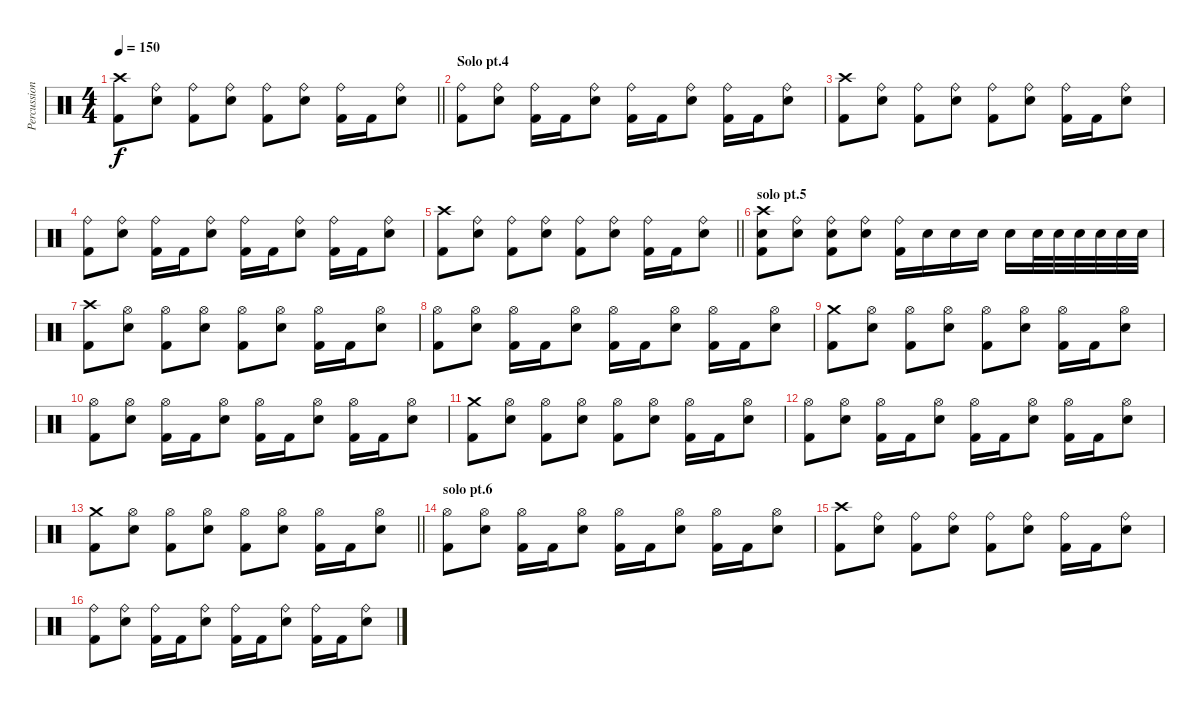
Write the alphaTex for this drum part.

\track ("Percussion" "Percussion") {instrument percussion}
\staff {score}
\articulation defaults
\ts (4 4)
\tempo 150
\clef neutral
\barLineRight lightlight
\ks c
("Crash high (hit)" "Kick (hit) 2").8{dy f} ("Ride (bell)" "Electric Snare (hit)").8 ("Ride (bell)" "Kick (hit) 2").8 ("Ride (bell)" "Electric Snare (hit)").8 ("Ride (bell)" "Kick (hit) 2").8 ("Ride (bell)" "Electric Snare (hit)").8 ("Ride (bell)" "Kick (hit) 2").16 "Kick (hit) 2".16 ("Ride (bell)" "Electric Snare (hit)").8 |
\section ("" "Solo pt.4")
("Ride (bell)" "Kick (hit) 2").8 ("Ride (bell)" "Electric Snare (hit)").8 ("Ride (bell)" "Kick (hit) 2").16 "Kick (hit) 2".16 ("Ride (bell)" "Electric Snare (hit)").8 ("Ride (bell)" "Kick (hit) 2").16 "Kick (hit) 2".16 ("Ride (bell)" "Electric Snare (hit)").8 ("Ride (bell)" "Kick (hit) 2").16 "Kick (hit) 2".16 ("Ride (bell)" "Electric Snare (hit)").8 |
("Crash high (hit)" "Kick (hit) 2").8 ("Ride (bell)" "Electric Snare (hit)").8 ("Ride (bell)" "Kick (hit) 2").8 ("Ride (bell)" "Electric Snare (hit)").8 ("Ride (bell)" "Kick (hit) 2").8 ("Ride (bell)" "Electric Snare (hit)").8 ("Ride (bell)" "Kick (hit) 2").16 "Kick (hit) 2".16 ("Ride (bell)" "Electric Snare (hit)").8 |
("Ride (bell)" "Kick (hit) 2").8 ("Ride (bell)" "Electric Snare (hit)").8 ("Ride (bell)" "Kick (hit) 2").16 "Kick (hit) 2".16 ("Ride (bell)" "Electric Snare (hit)").8 ("Ride (bell)" "Kick (hit) 2").16 "Kick (hit) 2".16 ("Ride (bell)" "Electric Snare (hit)").8 ("Ride (bell)" "Kick (hit) 2").16 "Kick (hit) 2".16 ("Ride (bell)" "Electric Snare (hit)").8 |
\barLineRight lightlight
("Crash high (hit)" "Kick (hit) 2").8 ("Ride (bell)" "Electric Snare (hit)").8 ("Ride (bell)" "Kick (hit) 2").8 ("Ride (bell)" "Electric Snare (hit)").8 ("Ride (bell)" "Kick (hit) 2").8 ("Ride (bell)" "Electric Snare (hit)").8 ("Ride (bell)" "Kick (hit) 2").16 "Kick (hit) 2".16 ("Ride (bell)" "Electric Snare (hit)").8 |
\section ("" "solo pt.5")
("Crash high (hit)" "Electric Snare (hit)" "Kick (hit) 2").8 ("Ride (bell)" "Electric Snare (hit)").8 ("Ride (bell)" "Electric Snare (hit)" "Kick (hit) 2").8 ("Ride (bell)" "Electric Snare (hit)").8 ("Ride (bell)" "Kick (hit) 2").16 "Electric Snare (hit)".16 "Electric Snare (hit)".16 "Electric Snare (hit)".16 "Electric Snare (hit)".16 "Electric Snare (hit)".32 "Electric Snare (hit)".32 "Electric Snare (hit)".32 "Electric Snare (hit)".32 "Electric Snare (hit)".32 "Electric Snare (hit)".32 |
("Crash high (hit)" "Kick (hit) 2").8 ("Hi-Hat (open)" "Electric Snare (hit)").8 ("Hi-Hat (open)" "Kick (hit) 2").8 ("Hi-Hat (open)" "Electric Snare (hit)").8 ("Hi-Hat (open)" "Kick (hit) 2").8 ("Hi-Hat (open)" "Electric Snare (hit)").8 ("Hi-Hat (open)" "Kick (hit) 2").16 "Kick (hit) 2".16 ("Hi-Hat (open)" "Electric Snare (hit)").8 |
("Hi-Hat (open)" "Kick (hit) 2").8 ("Hi-Hat (open)" "Electric Snare (hit)").8 ("Hi-Hat (open)" "Kick (hit) 2").16 "Kick (hit) 2".16 ("Hi-Hat (open)" "Electric Snare (hit)").8 ("Hi-Hat (open)" "Kick (hit) 2").16 "Kick (hit) 2".16 ("Hi-Hat (open)" "Electric Snare (hit)").8 ("Hi-Hat (open)" "Kick (hit) 2").16 "Kick (hit) 2".16 ("Hi-Hat (open)" "Electric Snare (hit)").8 |
("Crash medium (hit)" "Kick (hit) 2").8 ("Hi-Hat (open)" "Electric Snare (hit)").8 ("Hi-Hat (open)" "Kick (hit) 2").8 ("Hi-Hat (open)" "Electric Snare (hit)").8 ("Hi-Hat (open)" "Kick (hit) 2").8 ("Hi-Hat (open)" "Electric Snare (hit)").8 ("Hi-Hat (open)" "Kick (hit) 2").16 "Kick (hit) 2".16 ("Hi-Hat (open)" "Electric Snare (hit)").8 |
("Hi-Hat (open)" "Kick (hit) 2").8 ("Hi-Hat (open)" "Electric Snare (hit)").8 ("Hi-Hat (open)" "Kick (hit) 2").16 "Kick (hit) 2".16 ("Hi-Hat (open)" "Electric Snare (hit)").8 ("Hi-Hat (open)" "Kick (hit) 2").16 "Kick (hit) 2".16 ("Hi-Hat (open)" "Electric Snare (hit)").8 ("Hi-Hat (open)" "Kick (hit) 2").16 "Kick (hit) 2".16 ("Hi-Hat (open)" "Electric Snare (hit)").8 |
("Crash medium (hit)" "Kick (hit) 2").8 ("Hi-Hat (open)" "Electric Snare (hit)").8 ("Hi-Hat (open)" "Kick (hit) 2").8 ("Hi-Hat (open)" "Electric Snare (hit)").8 ("Hi-Hat (open)" "Kick (hit) 2").8 ("Hi-Hat (open)" "Electric Snare (hit)").8 ("Hi-Hat (open)" "Kick (hit) 2").16 "Kick (hit) 2".16 ("Hi-Hat (open)" "Electric Snare (hit)").8 |
("Hi-Hat (open)" "Kick (hit) 2").8 ("Hi-Hat (open)" "Electric Snare (hit)").8 ("Hi-Hat (open)" "Kick (hit) 2").16 "Kick (hit) 2".16 ("Hi-Hat (open)" "Electric Snare (hit)").8 ("Hi-Hat (open)" "Kick (hit) 2").16 "Kick (hit) 2".16 ("Hi-Hat (open)" "Electric Snare (hit)").8 ("Hi-Hat (open)" "Kick (hit) 2").16 "Kick (hit) 2".16 ("Hi-Hat (open)" "Electric Snare (hit)").8 |
\barLineRight lightlight
("Crash medium (hit)" "Kick (hit) 2").8 ("Hi-Hat (open)" "Electric Snare (hit)").8 ("Hi-Hat (open)" "Kick (hit) 2").8 ("Hi-Hat (open)" "Electric Snare (hit)").8 ("Hi-Hat (open)" "Kick (hit) 2").8 ("Hi-Hat (open)" "Electric Snare (hit)").8 ("Hi-Hat (open)" "Kick (hit) 2").16 "Kick (hit) 2".16 ("Hi-Hat (open)" "Electric Snare (hit)").8 |
\section ("" "solo pt.6")
("Hi-Hat (open)" "Kick (hit) 2").8 ("Hi-Hat (open)" "Electric Snare (hit)").8 ("Hi-Hat (open)" "Kick (hit) 2").16 "Kick (hit) 2".16 ("Hi-Hat (open)" "Electric Snare (hit)").8 ("Hi-Hat (open)" "Kick (hit) 2").16 "Kick (hit) 2".16 ("Hi-Hat (open)" "Electric Snare (hit)").8 ("Hi-Hat (open)" "Kick (hit) 2").16 "Kick (hit) 2".16 ("Hi-Hat (open)" "Electric Snare (hit)").8 |
("Crash high (hit)" "Kick (hit) 2").8 ("Ride (bell)" "Electric Snare (hit)").8 ("Ride (bell)" "Kick (hit) 2").8 ("Ride (bell)" "Electric Snare (hit)").8 ("Ride (bell)" "Kick (hit) 2").8 ("Ride (bell)" "Electric Snare (hit)").8 ("Ride (bell)" "Kick (hit) 2").16 "Kick (hit) 2".16 ("Ride (bell)" "Electric Snare (hit)").8 |
("Ride (bell)" "Kick (hit) 2").8 ("Ride (bell)" "Electric Snare (hit)").8 ("Ride (bell)" "Kick (hit) 2").16 "Kick (hit) 2".16 ("Ride (bell)" "Electric Snare (hit)").8 ("Ride (bell)" "Kick (hit) 2").16 "Kick (hit) 2".16 ("Ride (bell)" "Electric Snare (hit)").8 ("Ride (bell)" "Kick (hit) 2").16 "Kick (hit) 2".16 ("Ride (bell)" "Electric Snare (hit)").8
